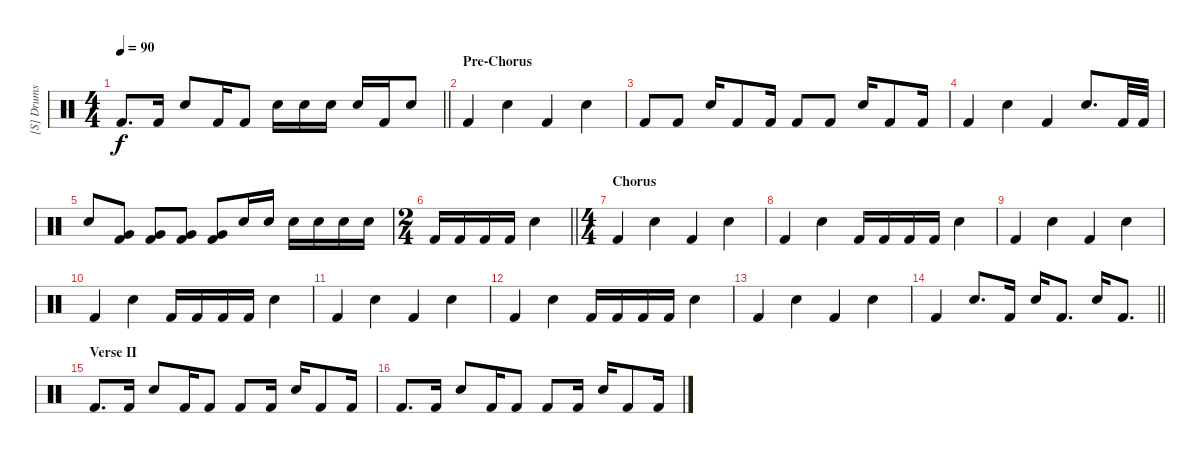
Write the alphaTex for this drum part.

\track ("[S] Drums I (Stewart)" "[S] Drums ") {instrument percussion}
\staff {score}
\articulation defaults
\ts (4 4)
\tempo 90
\clef neutral
\barLineRight lightlight
\ks c "Kick (hit) 2".8{d dy f} "Kick (hit) 2".16 "Snare (hit) 2".8 "Kick (hit) 2".16 "Kick (hit) 2".8 "Snare (hit) 2".16 "Snare (hit) 2".16 "Snare (hit) 2".16 "Snare (hit) 2".16 "Kick (hit) 2".16 "Snare (hit) 2".8
|
\section ("" "Pre-Chorus")
"Kick (hit) 2".4 "Snare (hit) 2".4 "Kick (hit) 2".4 "Snare (hit) 2".4 |
"Kick (hit) 2".8 "Kick (hit) 2".8 "Snare (hit) 2".16 "Kick (hit) 2".8 "Kick (hit) 2".16 "Kick (hit) 2".8 "Kick (hit) 2".8 "Snare (hit) 2".16 "Kick (hit) 2".8 "Kick (hit) 2".16 |
"Kick (hit) 2".4 "Snare (hit) 2".4 "Kick (hit) 2".4 "Snare (hit) 2".8{d} "Kick (hit) 2".32 "Kick (hit) 2".32 |
"Snare (hit) 2".8 ("Kick (hit) 2" "Very Low Tom (hit)").8 ("Kick (hit) 2" "Very Low Tom (hit)").8 ("Kick (hit) 2" "Very Low Tom (hit)").8 ("Kick (hit) 2" "Very Low Tom (hit)").8 "Snare (hit) 2".16 "Snare (hit) 2".16 "Snare (hit) 2".16 "Snare (hit) 2".16 "Snare (hit) 2".16 "Snare (hit) 2".16 |
\ts (2 4)
\barLineRight lightlight "Kick (hit) 2".16 "Kick (hit) 2".16 "Kick (hit) 2".16 "Kick (hit) 2".16 "Snare (hit) 2".4
|
\ts (4 4)
\section ("" "Chorus")
"Kick (hit) 2".4 "Snare (hit) 2".4 "Kick (hit) 2".4 "Snare (hit) 2".4 |
"Kick (hit) 2".4 "Snare (hit) 2".4 "Kick (hit) 2".16 "Kick (hit) 2".16 "Kick (hit) 2".16 "Kick (hit) 2".16 "Snare (hit) 2".4 |
"Kick (hit) 2".4 "Snare (hit) 2".4 "Kick (hit) 2".4 "Snare (hit) 2".4 |
"Kick (hit) 2".4 "Snare (hit) 2".4 "Kick (hit) 2".16 "Kick (hit) 2".16 "Kick (hit) 2".16 "Kick (hit) 2".16 "Snare (hit) 2".4 |
"Kick (hit) 2".4 "Snare (hit) 2".4 "Kick (hit) 2".4 "Snare (hit) 2".4 |
"Kick (hit) 2".4 "Snare (hit) 2".4 "Kick (hit) 2".16 "Kick (hit) 2".16 "Kick (hit) 2".16 "Kick (hit) 2".16 "Snare (hit) 2".4 |
"Kick (hit) 2".4 "Snare (hit) 2".4 "Kick (hit) 2".4 "Snare (hit) 2".4 |
\barLineRight lightlight "Kick (hit) 2".4 "Snare (hit) 2".8{d} "Kick (hit) 2".16 "Snare (hit) 2".16 "Kick (hit) 2".8{d} "Snare (hit) 2".16 "Kick (hit) 2".8{d}
|
\section ("" "Verse II")
"Kick (hit) 2".8{d} "Kick (hit) 2".16 "Snare (hit) 2".8 "Kick (hit) 2".16 "Kick (hit) 2".8 "Kick (hit) 2".8 "Kick (hit) 2".16 "Snare (hit) 2".16 "Kick (hit) 2".8 "Kick (hit) 2".16 |
"Kick (hit) 2".8{d} "Kick (hit) 2".16 "Snare (hit) 2".8 "Kick (hit) 2".16 "Kick (hit) 2".8 "Kick (hit) 2".8 "Kick (hit) 2".16 "Snare (hit) 2".16 "Kick (hit) 2".8 "Kick (hit) 2".16
